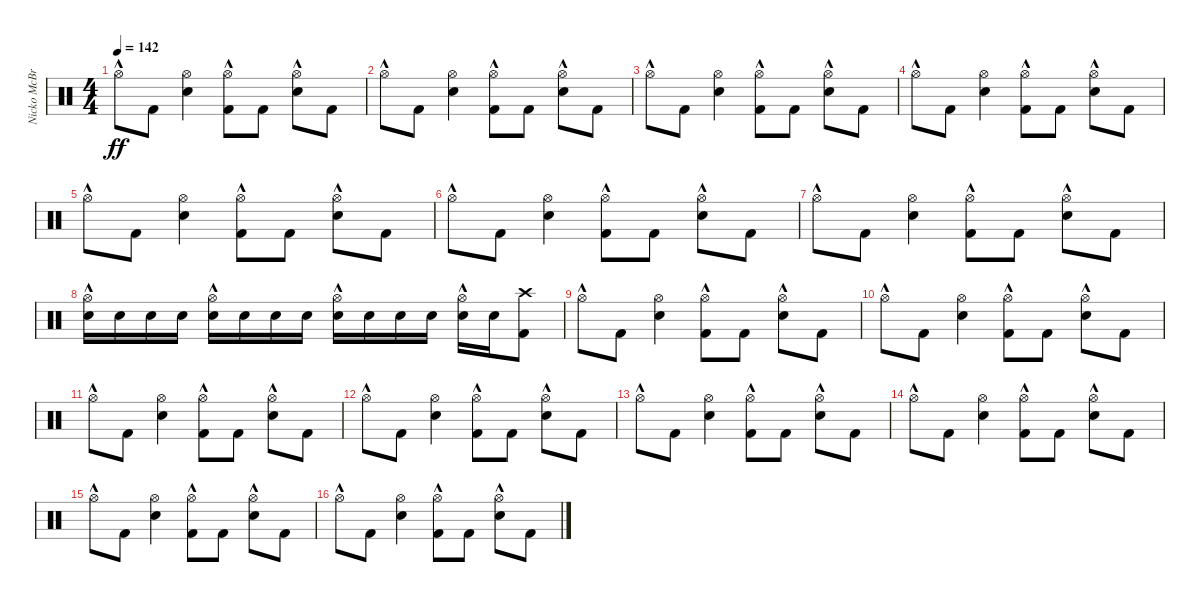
\track ("Nicko McBrain" "Nicko McBr") {instrument percussion}
\staff {score}
\articulation defaults
\ts (4 4)
\tempo 142
\clef neutral
\ks c "Hi-Hat (open)"{hac}.8{dy ff} "Kick (hit) 2".8
("Snare (hit) 2" "Hi-Hat (open)").4 ("Kick (hit) 2" "Hi-Hat (open)"{hac}).8 "Kick (hit) 2".8 ("Snare (hit) 2" "Hi-Hat (open)"{hac}).8 "Kick (hit) 2".8 |
"Hi-Hat (open)"{hac}.8 "Kick (hit) 2".8 ("Snare (hit) 2" "Hi-Hat (open)").4 ("Kick (hit) 2" "Hi-Hat (open)"{hac}).8 "Kick (hit) 2".8 ("Snare (hit) 2" "Hi-Hat (open)"{hac}).8 "Kick (hit) 2".8 |
"Hi-Hat (open)"{hac}.8 "Kick (hit) 2".8 ("Snare (hit) 2" "Hi-Hat (open)").4 ("Kick (hit) 2" "Hi-Hat (open)"{hac}).8 "Kick (hit) 2".8 ("Snare (hit) 2" "Hi-Hat (open)"{hac}).8 "Kick (hit) 2".8 |
"Hi-Hat (open)"{hac}.8 "Kick (hit) 2".8 ("Snare (hit) 2" "Hi-Hat (open)").4 ("Kick (hit) 2" "Hi-Hat (open)"{hac}).8 "Kick (hit) 2".8 ("Snare (hit) 2" "Hi-Hat (open)"{hac}).8 "Kick (hit) 2".8 |
"Hi-Hat (open)"{hac}.8 "Kick (hit) 2".8 ("Snare (hit) 2" "Hi-Hat (open)").4 ("Kick (hit) 2" "Hi-Hat (open)"{hac}).8 "Kick (hit) 2".8 ("Snare (hit) 2" "Hi-Hat (open)"{hac}).8 "Kick (hit) 2".8 |
"Hi-Hat (open)"{hac}.8 "Kick (hit) 2".8 ("Snare (hit) 2" "Hi-Hat (open)").4 ("Kick (hit) 2" "Hi-Hat (open)"{hac}).8 "Kick (hit) 2".8 ("Snare (hit) 2" "Hi-Hat (open)"{hac}).8 "Kick (hit) 2".8 |
"Hi-Hat (open)"{hac}.8 "Kick (hit) 2".8 ("Snare (hit) 2" "Hi-Hat (open)").4 ("Kick (hit) 2" "Hi-Hat (open)"{hac}).8 "Kick (hit) 2".8 ("Snare (hit) 2" "Hi-Hat (open)"{hac}).8 "Kick (hit) 2".8 |
("Snare (hit) 2" "Hi-Hat (open)"{hac}).16 "Snare (hit) 2".16 "Snare (hit) 2".16 "Snare (hit) 2".16 ("Snare (hit) 2" "Hi-Hat (open)"{hac}).16 "Snare (hit) 2".16 "Snare (hit) 2".16 "Snare (hit) 2".16 ("Snare (hit) 2" "Hi-Hat (open)"{hac}).16 "Snare (hit) 2".16 "Snare (hit) 2".16 "Snare (hit) 2".16 ("Snare (hit) 2" "Hi-Hat (open)"{hac}).16 "Snare (hit) 2".16 ("Kick (hit) 2" "Crash high (hit)").8 |
"Hi-Hat (open)"{hac}.8 "Kick (hit) 2".8 ("Snare (hit) 2" "Hi-Hat (open)").4 ("Kick (hit) 2" "Hi-Hat (open)"{hac}).8 "Kick (hit) 2".8 ("Snare (hit) 2" "Hi-Hat (open)"{hac}).8 "Kick (hit) 2".8 |
"Hi-Hat (open)"{hac}.8 "Kick (hit) 2".8 ("Snare (hit) 2" "Hi-Hat (open)").4 ("Kick (hit) 2" "Hi-Hat (open)"{hac}).8 "Kick (hit) 2".8 ("Snare (hit) 2" "Hi-Hat (open)"{hac}).8 "Kick (hit) 2".8 |
"Hi-Hat (open)"{hac}.8 "Kick (hit) 2".8 ("Snare (hit) 2" "Hi-Hat (open)").4 ("Kick (hit) 2" "Hi-Hat (open)"{hac}).8 "Kick (hit) 2".8 ("Snare (hit) 2" "Hi-Hat (open)"{hac}).8 "Kick (hit) 2".8 |
"Hi-Hat (open)"{hac}.8 "Kick (hit) 2".8 ("Snare (hit) 2" "Hi-Hat (open)").4 ("Kick (hit) 2" "Hi-Hat (open)"{hac}).8 "Kick (hit) 2".8 ("Snare (hit) 2" "Hi-Hat (open)"{hac}).8 "Kick (hit) 2".8 |
"Hi-Hat (open)"{hac}.8 "Kick (hit) 2".8 ("Snare (hit) 2" "Hi-Hat (open)").4 ("Kick (hit) 2" "Hi-Hat (open)"{hac}).8 "Kick (hit) 2".8 ("Snare (hit) 2" "Hi-Hat (open)"{hac}).8 "Kick (hit) 2".8 |
"Hi-Hat (open)"{hac}.8 "Kick (hit) 2".8 ("Snare (hit) 2" "Hi-Hat (open)").4 ("Kick (hit) 2" "Hi-Hat (open)"{hac}).8 "Kick (hit) 2".8 ("Snare (hit) 2" "Hi-Hat (open)"{hac}).8 "Kick (hit) 2".8 |
"Hi-Hat (open)"{hac}.8 "Kick (hit) 2".8 ("Snare (hit) 2" "Hi-Hat (open)").4 ("Kick (hit) 2" "Hi-Hat (open)"{hac}).8 "Kick (hit) 2".8 ("Snare (hit) 2" "Hi-Hat (open)"{hac}).8 "Kick (hit) 2".8 |
"Hi-Hat (open)"{hac}.8 "Kick (hit) 2".8 ("Snare (hit) 2" "Hi-Hat (open)").4 ("Kick (hit) 2" "Hi-Hat (open)"{hac}).8 "Kick (hit) 2".8 ("Snare (hit) 2" "Hi-Hat (open)"{hac}).8 "Kick (hit) 2".8
